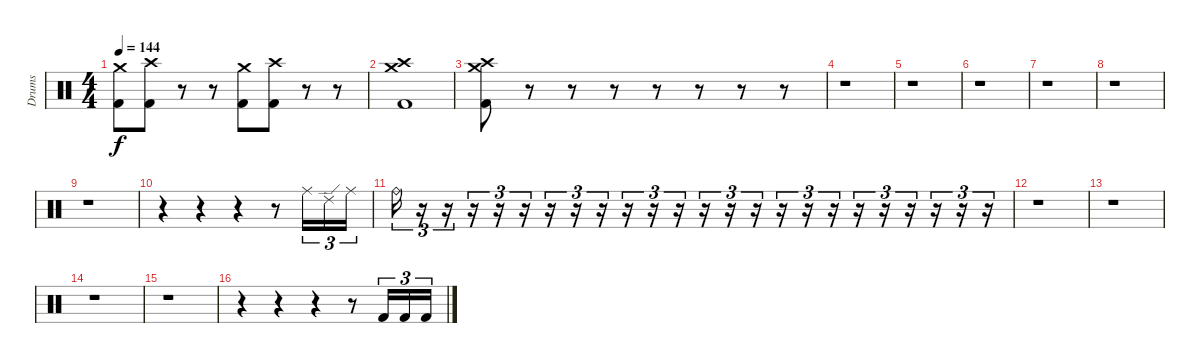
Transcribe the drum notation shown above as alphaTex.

\track ("Drums" "Drums") {instrument percussion}
\staff {score}
\articulation defaults
\ts (4 4)
\tempo 144
\clef neutral
\ks c
("Crash medium (hit)" "Kick (hit) 2").8{dy f} ("Crash high (hit)" "Kick (hit) 2").8 r.8 r.8 ("Crash medium (hit)" "Kick (hit) 2").8 ("Crash high (hit)" "Kick (hit) 2").8 r.8 r.8 |
("Crash medium (hit)" "Crash high (hit)" "Kick (hit) 2").1 |
("Crash medium (hit)" "Crash high (hit)" "Kick (hit) 2").8 r.8 r.8 r.8 r.8 r.8 r.8 r.8 |
r.1 |
r.1 |
r.1 |
r.1 |
r.1 |
r.1 |
r.4 r.4 r.4 r.8 "Ride (middle)".16{tu (3 2)} "Ride (edge) 2".16{tu (3 2)} "Ride (middle)".16{tu (3 2)} |
"Ride (bell)".16{tu (3 2)} r.16{tu (3 2)} r.16{tu (3 2)} r.16{tu (3 2)} r.16{tu (3 2)} r.16{tu (3 2)} r.16{tu (3 2)} r.16{tu (3 2)} r.16{tu (3 2)} r.16{tu (3 2)} r.16{tu (3 2)} r.16{tu (3 2)} r.16{tu (3 2)} r.16{tu (3 2)} r.16{tu (3 2)} r.16{tu (3 2)} r.16{tu (3 2)} r.16{tu (3 2)} r.16{tu (3 2)} r.16{tu (3 2)} r.16{tu (3 2)} r.16{tu (3 2)} r.16{tu (3 2)} r.16{tu (3 2)} |
r.1 |
r.1 |
r.1 |
r.1 |
r.4 r.4 r.4 r.8 "Kick (hit) 2".16{tu (3 2)} "Kick (hit) 2".16{tu (3 2)} "Kick (hit) 2".16{tu (3 2)}
